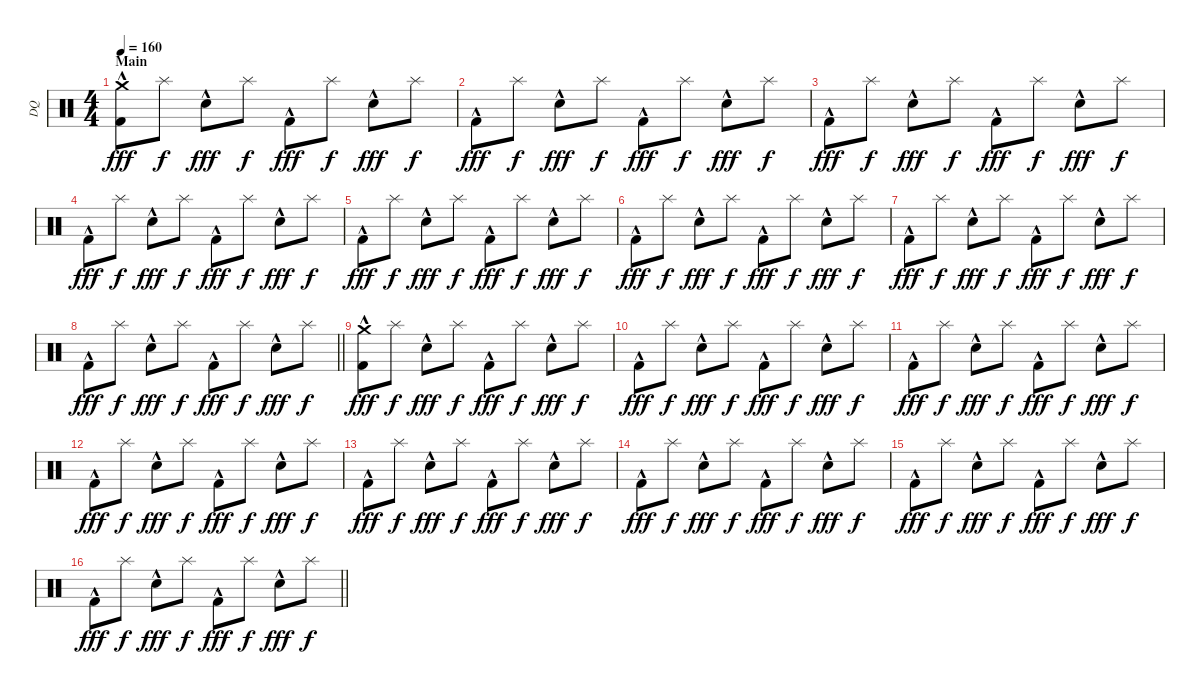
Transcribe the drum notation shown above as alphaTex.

\track ("DQ" "DQ") {instrument percussion}
\staff {score}
\articulation defaults
\ts (4 4)
\section ("" "Main")
\tempo 160
\clef neutral
\ks c
("Kick (hit) 2"{hac} "Crash medium (hit)").8{dy fff} "Splash (hit)".8{dy f} "Snare (hit) 2"{hac}.8{dy fff} "Splash (hit)".8{dy f} "Kick (hit) 2"{hac}.8{dy fff} "Splash (hit)".8{dy f} "Snare (hit) 2"{hac}.8{dy fff} "Splash (hit)".8{dy f} |
"Kick (hit) 2"{hac}.8{dy fff} "Splash (hit)".8{dy f} "Snare (hit) 2"{hac}.8{dy fff} "Splash (hit)".8{dy f} "Kick (hit) 2"{hac}.8{dy fff} "Splash (hit)".8{dy f} "Snare (hit) 2"{hac}.8{dy fff} "Splash (hit)".8{dy f} |
"Kick (hit) 2"{hac}.8{dy fff} "Splash (hit)".8{dy f} "Snare (hit) 2"{hac}.8{dy fff} "Splash (hit)".8{dy f} "Kick (hit) 2"{hac}.8{dy fff} "Splash (hit)".8{dy f} "Snare (hit) 2"{hac}.8{dy fff} "Splash (hit)".8{dy f} |
"Kick (hit) 2"{hac}.8{dy fff} "Splash (hit)".8{dy f} "Snare (hit) 2"{hac}.8{dy fff} "Splash (hit)".8{dy f} "Kick (hit) 2"{hac}.8{dy fff} "Splash (hit)".8{dy f} "Snare (hit) 2"{hac}.8{dy fff} "Splash (hit)".8{dy f} |
"Kick (hit) 2"{hac}.8{dy fff} "Splash (hit)".8{dy f} "Snare (hit) 2"{hac}.8{dy fff} "Splash (hit)".8{dy f} "Kick (hit) 2"{hac}.8{dy fff} "Splash (hit)".8{dy f} "Snare (hit) 2"{hac}.8{dy fff} "Splash (hit)".8{dy f} |
"Kick (hit) 2"{hac}.8{dy fff} "Splash (hit)".8{dy f} "Snare (hit) 2"{hac}.8{dy fff} "Splash (hit)".8{dy f} "Kick (hit) 2"{hac}.8{dy fff} "Splash (hit)".8{dy f} "Snare (hit) 2"{hac}.8{dy fff} "Splash (hit)".8{dy f} |
"Kick (hit) 2"{hac}.8{dy fff} "Splash (hit)".8{dy f} "Snare (hit) 2"{hac}.8{dy fff} "Splash (hit)".8{dy f} "Kick (hit) 2"{hac}.8{dy fff} "Splash (hit)".8{dy f} "Snare (hit) 2"{hac}.8{dy fff} "Splash (hit)".8{dy f} |
\barLineRight lightlight "Kick (hit) 2"{hac}.8{dy fff} "Splash (hit)".8{dy f} "Snare (hit) 2"{hac}.8{dy fff} "Splash (hit)".8{dy f} "Kick (hit) 2"{hac}.8{dy fff} "Splash (hit)".8{dy f} "Snare (hit) 2"{hac}.8{dy fff} "Splash (hit)".8{dy f}
|
\section ("" "")
("Kick (hit) 2"{hac} "Crash medium (hit)").8{dy fff} "Splash (hit)".8{dy f} "Snare (hit) 2"{hac}.8{dy fff} "Splash (hit)".8{dy f} "Kick (hit) 2"{hac}.8{dy fff} "Splash (hit)".8{dy f} "Snare (hit) 2"{hac}.8{dy fff} "Splash (hit)".8{dy f} |
"Kick (hit) 2"{hac}.8{dy fff} "Splash (hit)".8{dy f} "Snare (hit) 2"{hac}.8{dy fff} "Splash (hit)".8{dy f} "Kick (hit) 2"{hac}.8{dy fff} "Splash (hit)".8{dy f} "Snare (hit) 2"{hac}.8{dy fff} "Splash (hit)".8{dy f} |
"Kick (hit) 2"{hac}.8{dy fff} "Splash (hit)".8{dy f} "Snare (hit) 2"{hac}.8{dy fff} "Splash (hit)".8{dy f} "Kick (hit) 2"{hac}.8{dy fff} "Splash (hit)".8{dy f} "Snare (hit) 2"{hac}.8{dy fff} "Splash (hit)".8{dy f} |
"Kick (hit) 2"{hac}.8{dy fff} "Splash (hit)".8{dy f} "Snare (hit) 2"{hac}.8{dy fff} "Splash (hit)".8{dy f} "Kick (hit) 2"{hac}.8{dy fff} "Splash (hit)".8{dy f} "Snare (hit) 2"{hac}.8{dy fff} "Splash (hit)".8{dy f} |
"Kick (hit) 2"{hac}.8{dy fff} "Splash (hit)".8{dy f} "Snare (hit) 2"{hac}.8{dy fff} "Splash (hit)".8{dy f} "Kick (hit) 2"{hac}.8{dy fff} "Splash (hit)".8{dy f} "Snare (hit) 2"{hac}.8{dy fff} "Splash (hit)".8{dy f} |
"Kick (hit) 2"{hac}.8{dy fff} "Splash (hit)".8{dy f} "Snare (hit) 2"{hac}.8{dy fff} "Splash (hit)".8{dy f} "Kick (hit) 2"{hac}.8{dy fff} "Splash (hit)".8{dy f} "Snare (hit) 2"{hac}.8{dy fff} "Splash (hit)".8{dy f} |
"Kick (hit) 2"{hac}.8{dy fff} "Splash (hit)".8{dy f} "Snare (hit) 2"{hac}.8{dy fff} "Splash (hit)".8{dy f} "Kick (hit) 2"{hac}.8{dy fff} "Splash (hit)".8{dy f} "Snare (hit) 2"{hac}.8{dy fff} "Splash (hit)".8{dy f} |
\barLineRight lightlight "Kick (hit) 2"{hac}.8{dy fff} "Splash (hit)".8{dy f} "Snare (hit) 2"{hac}.8{dy fff} "Splash (hit)".8{dy f} "Kick (hit) 2"{hac}.8{dy fff} "Splash (hit)".8{dy f} "Snare (hit) 2"{hac}.8{dy fff} "Splash (hit)".8{dy f}
